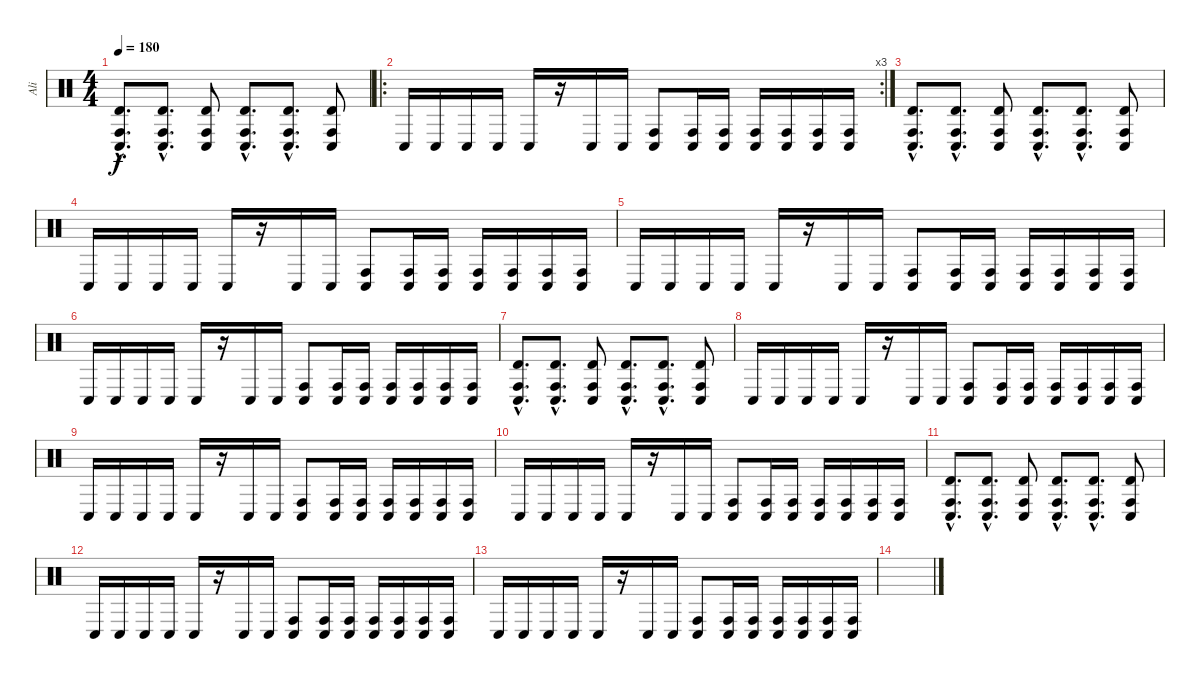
\track ("Ali" "Ali") {instrument percussion}
\staff {score}
\articulation defaults
\ts (4 4)
\tempo 180
\clef neutral
\ks c
("Timbale high (hit)"{hac} "Conga high (hit)"{hac} "Conga low (hit)"{hac}).8{d dy f} ("Timbale high (hit)"{hac} "Conga high (hit)"{hac} "Conga low (hit)"{hac}).8{d} ("Timbale high (hit)" "Conga high (hit)" "Conga low (hit)").8 ("Timbale high (hit)"{hac} "Conga high (hit)"{hac} "Conga low (hit)"{hac}).8{d} ("Timbale high (hit)"{hac} "Conga high (hit)"{hac} "Conga low (hit)"{hac}).8{d} ("Timbale high (hit)" "Conga high (hit)" "Conga low (hit)").8 |
\ro
\rc 3 "Conga low (hit)".16 "Conga low (hit)".16 "Conga low (hit)".16 "Conga low (hit)".16 "Conga low (hit)".16
r.16 "Conga low (hit)".16 "Conga low (hit)".16 ("Conga high (hit)" "Conga low (hit)").8 ("Conga high (hit)" "Conga low (hit)").16 ("Conga high (hit)" "Conga low (hit)").16 ("Conga high (hit)" "Conga low (hit)").16 ("Conga high (hit)" "Conga low (hit)").16 ("Conga high (hit)" "Conga low (hit)").16 ("Conga high (hit)" "Conga low (hit)").16 |
("Timbale high (hit)"{hac} "Conga high (hit)"{hac} "Conga low (hit)"{hac}).8{d} ("Timbale high (hit)"{hac} "Conga high (hit)"{hac} "Conga low (hit)"{hac}).8{d} ("Timbale high (hit)" "Conga high (hit)" "Conga low (hit)").8 ("Timbale high (hit)"{hac} "Conga high (hit)"{hac} "Conga low (hit)"{hac}).8{d} ("Timbale high (hit)"{hac} "Conga high (hit)"{hac} "Conga low (hit)"{hac}).8{d} ("Timbale high (hit)" "Conga high (hit)" "Conga low (hit)").8 |
"Conga low (hit)".16 "Conga low (hit)".16 "Conga low (hit)".16 "Conga low (hit)".16 "Conga low (hit)".16 r.16 "Conga low (hit)".16 "Conga low (hit)".16 ("Conga high (hit)" "Conga low (hit)").8 ("Conga high (hit)" "Conga low (hit)").16 ("Conga high (hit)" "Conga low (hit)").16 ("Conga high (hit)" "Conga low (hit)").16 ("Conga high (hit)" "Conga low (hit)").16 ("Conga high (hit)" "Conga low (hit)").16 ("Conga high (hit)" "Conga low (hit)").16 |
"Conga low (hit)".16 "Conga low (hit)".16 "Conga low (hit)".16 "Conga low (hit)".16 "Conga low (hit)".16 r.16 "Conga low (hit)".16 "Conga low (hit)".16 ("Conga high (hit)" "Conga low (hit)").8 ("Conga high (hit)" "Conga low (hit)").16 ("Conga high (hit)" "Conga low (hit)").16 ("Conga high (hit)" "Conga low (hit)").16 ("Conga high (hit)" "Conga low (hit)").16 ("Conga high (hit)" "Conga low (hit)").16 ("Conga high (hit)" "Conga low (hit)").16 |
"Conga low (hit)".16 "Conga low (hit)".16 "Conga low (hit)".16 "Conga low (hit)".16 "Conga low (hit)".16 r.16 "Conga low (hit)".16 "Conga low (hit)".16 ("Conga high (hit)" "Conga low (hit)").8 ("Conga high (hit)" "Conga low (hit)").16 ("Conga high (hit)" "Conga low (hit)").16 ("Conga high (hit)" "Conga low (hit)").16 ("Conga high (hit)" "Conga low (hit)").16 ("Conga high (hit)" "Conga low (hit)").16 ("Conga high (hit)" "Conga low (hit)").16 |
("Timbale high (hit)"{hac} "Conga high (hit)"{hac} "Conga low (hit)"{hac}).8{d} ("Timbale high (hit)"{hac} "Conga high (hit)"{hac} "Conga low (hit)"{hac}).8{d} ("Timbale high (hit)" "Conga high (hit)" "Conga low (hit)").8 ("Timbale high (hit)"{hac} "Conga high (hit)"{hac} "Conga low (hit)"{hac}).8{d} ("Timbale high (hit)"{hac} "Conga high (hit)"{hac} "Conga low (hit)"{hac}).8{d} ("Timbale high (hit)" "Conga high (hit)" "Conga low (hit)").8 |
"Conga low (hit)".16 "Conga low (hit)".16 "Conga low (hit)".16 "Conga low (hit)".16 "Conga low (hit)".16 r.16 "Conga low (hit)".16 "Conga low (hit)".16 ("Conga high (hit)" "Conga low (hit)").8 ("Conga high (hit)" "Conga low (hit)").16 ("Conga high (hit)" "Conga low (hit)").16 ("Conga high (hit)" "Conga low (hit)").16 ("Conga high (hit)" "Conga low (hit)").16 ("Conga high (hit)" "Conga low (hit)").16 ("Conga high (hit)" "Conga low (hit)").16 |
"Conga low (hit)".16 "Conga low (hit)".16 "Conga low (hit)".16 "Conga low (hit)".16 "Conga low (hit)".16 r.16 "Conga low (hit)".16 "Conga low (hit)".16 ("Conga high (hit)" "Conga low (hit)").8 ("Conga high (hit)" "Conga low (hit)").16 ("Conga high (hit)" "Conga low (hit)").16 ("Conga high (hit)" "Conga low (hit)").16 ("Conga high (hit)" "Conga low (hit)").16 ("Conga high (hit)" "Conga low (hit)").16 ("Conga high (hit)" "Conga low (hit)").16 |
"Conga low (hit)".16 "Conga low (hit)".16 "Conga low (hit)".16 "Conga low (hit)".16 "Conga low (hit)".16 r.16 "Conga low (hit)".16 "Conga low (hit)".16 ("Conga high (hit)" "Conga low (hit)").8 ("Conga high (hit)" "Conga low (hit)").16 ("Conga high (hit)" "Conga low (hit)").16 ("Conga high (hit)" "Conga low (hit)").16 ("Conga high (hit)" "Conga low (hit)").16 ("Conga high (hit)" "Conga low (hit)").16 ("Conga high (hit)" "Conga low (hit)").16 |
("Timbale high (hit)"{hac} "Conga high (hit)"{hac} "Conga low (hit)"{hac}).8{d} ("Timbale high (hit)"{hac} "Conga high (hit)"{hac} "Conga low (hit)"{hac}).8{d} ("Timbale high (hit)" "Conga high (hit)" "Conga low (hit)").8 ("Timbale high (hit)"{hac} "Conga high (hit)"{hac} "Conga low (hit)"{hac}).8{d} ("Timbale high (hit)"{hac} "Conga high (hit)"{hac} "Conga low (hit)"{hac}).8{d} ("Timbale high (hit)" "Conga high (hit)" "Conga low (hit)").8 |
"Conga low (hit)".16 "Conga low (hit)".16 "Conga low (hit)".16 "Conga low (hit)".16 "Conga low (hit)".16 r.16 "Conga low (hit)".16 "Conga low (hit)".16 ("Conga high (hit)" "Conga low (hit)").8 ("Conga high (hit)" "Conga low (hit)").16 ("Conga high (hit)" "Conga low (hit)").16 ("Conga high (hit)" "Conga low (hit)").16 ("Conga high (hit)" "Conga low (hit)").16 ("Conga high (hit)" "Conga low (hit)").16 ("Conga high (hit)" "Conga low (hit)").16 |
"Conga low (hit)".16 "Conga low (hit)".16 "Conga low (hit)".16 "Conga low (hit)".16 "Conga low (hit)".16 r.16 "Conga low (hit)".16 "Conga low (hit)".16 ("Conga high (hit)" "Conga low (hit)").8 ("Conga high (hit)" "Conga low (hit)").16 ("Conga high (hit)" "Conga low (hit)").16 ("Conga high (hit)" "Conga low (hit)").16 ("Conga high (hit)" "Conga low (hit)").16 ("Conga high (hit)" "Conga low (hit)").16 ("Conga high (hit)" "Conga low (hit)").16 |
\section ("" "")
